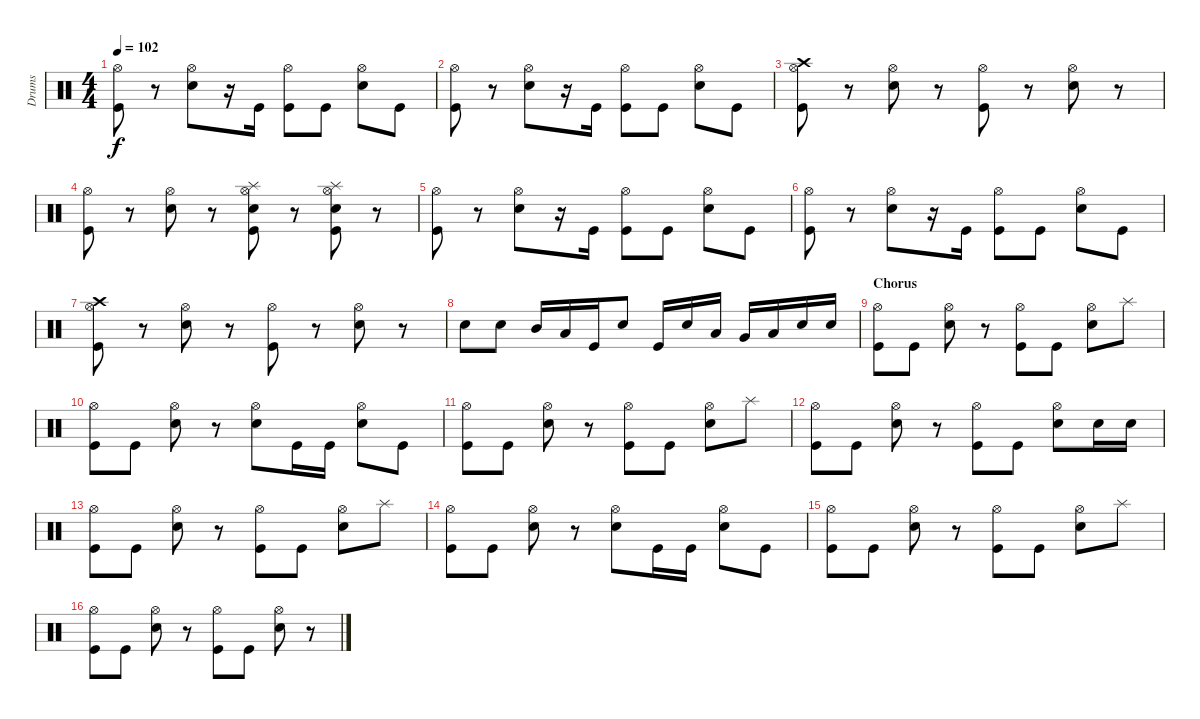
\track ("Drums" "Drums") {instrument percussion}
\staff {score}
\articulation defaults
\ts (4 4)
\tempo 102
\clef neutral
\ks c
("Hi-Hat (open)" "Kick (hit)").8{dy f} r.8 ("Hi-Hat (open)" "Snare (hit) 2").8 r.16 "Kick (hit)".16 ("Hi-Hat (open)" "Kick (hit)").8 "Kick (hit)".8 ("Hi-Hat (open)" "Snare (hit) 2").8 "Kick (hit)".8 |
("Hi-Hat (open)" "Kick (hit)").8 r.8 ("Hi-Hat (open)" "Snare (hit) 2").8 r.16 "Kick (hit)".16 ("Hi-Hat (open)" "Kick (hit)").8 "Kick (hit)".8 ("Hi-Hat (open)" "Snare (hit) 2").8 "Kick (hit)".8 |
("Hi-Hat (open)" "Crash high (hit)" "Kick (hit)").8 r.8 ("Hi-Hat (open)" "Snare (hit) 2").8 r.8 ("Hi-Hat (open)" "Kick (hit)").8 r.8 ("Hi-Hat (open)" "Snare (hit) 2").8 r.8 |
("Hi-Hat (open)" "Kick (hit)").8 r.8 ("Hi-Hat (open)" "Snare (hit) 2").8 r.8 ("Hi-Hat (open)" "Splash (hit)" "Snare (hit) 2" "Kick (hit)").8 r.8 ("Hi-Hat (open)" "Splash (hit)" "Snare (hit) 2" "Kick (hit)").8 r.8 |
("Hi-Hat (open)" "Kick (hit)").8 r.8 ("Hi-Hat (open)" "Snare (hit) 2").8 r.16 "Kick (hit)".16 ("Hi-Hat (open)" "Kick (hit)").8 "Kick (hit)".8 ("Hi-Hat (open)" "Snare (hit) 2").8 "Kick (hit)".8 |
("Hi-Hat (open)" "Kick (hit)").8 r.8 ("Hi-Hat (open)" "Snare (hit) 2").8 r.16 "Kick (hit)".16 ("Hi-Hat (open)" "Kick (hit)").8 "Kick (hit)".8 ("Hi-Hat (open)" "Snare (hit) 2").8 "Kick (hit)".8 |
("Hi-Hat (open)" "Crash high (hit)" "Kick (hit)").8 r.8 ("Hi-Hat (open)" "Snare (hit) 2").8 r.8 ("Hi-Hat (open)" "Kick (hit)").8 r.8 ("Hi-Hat (open)" "Snare (hit) 2").8 r.8 |
"Snare (hit) 2".8 "Snare (hit) 2".8 "Mid Tom (hit)".16 "Low Tom (hit)".16 "Kick (hit)".16 "Snare (hit) 2".8 "Kick (hit)".16 "Snare (hit) 2".16 "Low Tom (hit)".16 "Very Low Tom (hit)".16 "Low Floor Tom (hit)".16 "Snare (hit) 2".16 "Snare (hit) 2".16 |
\section ("" "Chorus")
("Hi-Hat (open)" "Kick (hit)").8 "Kick (hit)".8 ("Hi-Hat (open)" "Snare (hit) 2").8 r.8 ("Hi-Hat (open)" "Kick (hit)").8 "Kick (hit)".8 ("Hi-Hat (open)" "Snare (hit) 2").8 "Splash (hit)".8 |
("Hi-Hat (open)" "Kick (hit)").8 "Kick (hit)".8 ("Hi-Hat (open)" "Snare (hit) 2").8 r.8 ("Hi-Hat (open)" "Snare (hit) 2").8 "Kick (hit)".16 "Kick (hit)".16 ("Hi-Hat (open)" "Snare (hit) 2").8 "Kick (hit)".8 |
("Hi-Hat (open)" "Kick (hit)").8 "Kick (hit)".8 ("Hi-Hat (open)" "Snare (hit) 2").8 r.8 ("Hi-Hat (open)" "Kick (hit)").8 "Kick (hit)".8 ("Hi-Hat (open)" "Snare (hit) 2").8 "Splash (hit)".8 |
("Hi-Hat (open)" "Kick (hit)").8 "Kick (hit)".8 ("Hi-Hat (open)" "Snare (hit) 2").8 r.8 ("Hi-Hat (open)" "Kick (hit)").8 "Kick (hit)".8 ("Hi-Hat (open)" "Snare (hit) 2").8 "Snare (hit) 2".16 "Snare (hit) 2".16 |
("Hi-Hat (open)" "Kick (hit)").8 "Kick (hit)".8 ("Hi-Hat (open)" "Snare (hit) 2").8 r.8 ("Hi-Hat (open)" "Kick (hit)").8 "Kick (hit)".8 ("Hi-Hat (open)" "Snare (hit) 2").8 "Splash (hit)".8 |
("Hi-Hat (open)" "Kick (hit)").8 "Kick (hit)".8 ("Hi-Hat (open)" "Snare (hit) 2").8 r.8 ("Hi-Hat (open)" "Snare (hit) 2").8 "Kick (hit)".16 "Kick (hit)".16 ("Hi-Hat (open)" "Snare (hit) 2").8 "Kick (hit)".8 |
("Hi-Hat (open)" "Kick (hit)").8 "Kick (hit)".8 ("Hi-Hat (open)" "Snare (hit) 2").8 r.8 ("Hi-Hat (open)" "Kick (hit)").8 "Kick (hit)".8 ("Hi-Hat (open)" "Snare (hit) 2").8 "Splash (hit)".8 |
("Hi-Hat (open)" "Kick (hit)").8 "Kick (hit)".8 ("Hi-Hat (open)" "Snare (hit) 2").8 r.8 ("Hi-Hat (open)" "Kick (hit)").8 "Kick (hit)".8 ("Hi-Hat (open)" "Snare (hit) 2").8 r.8
